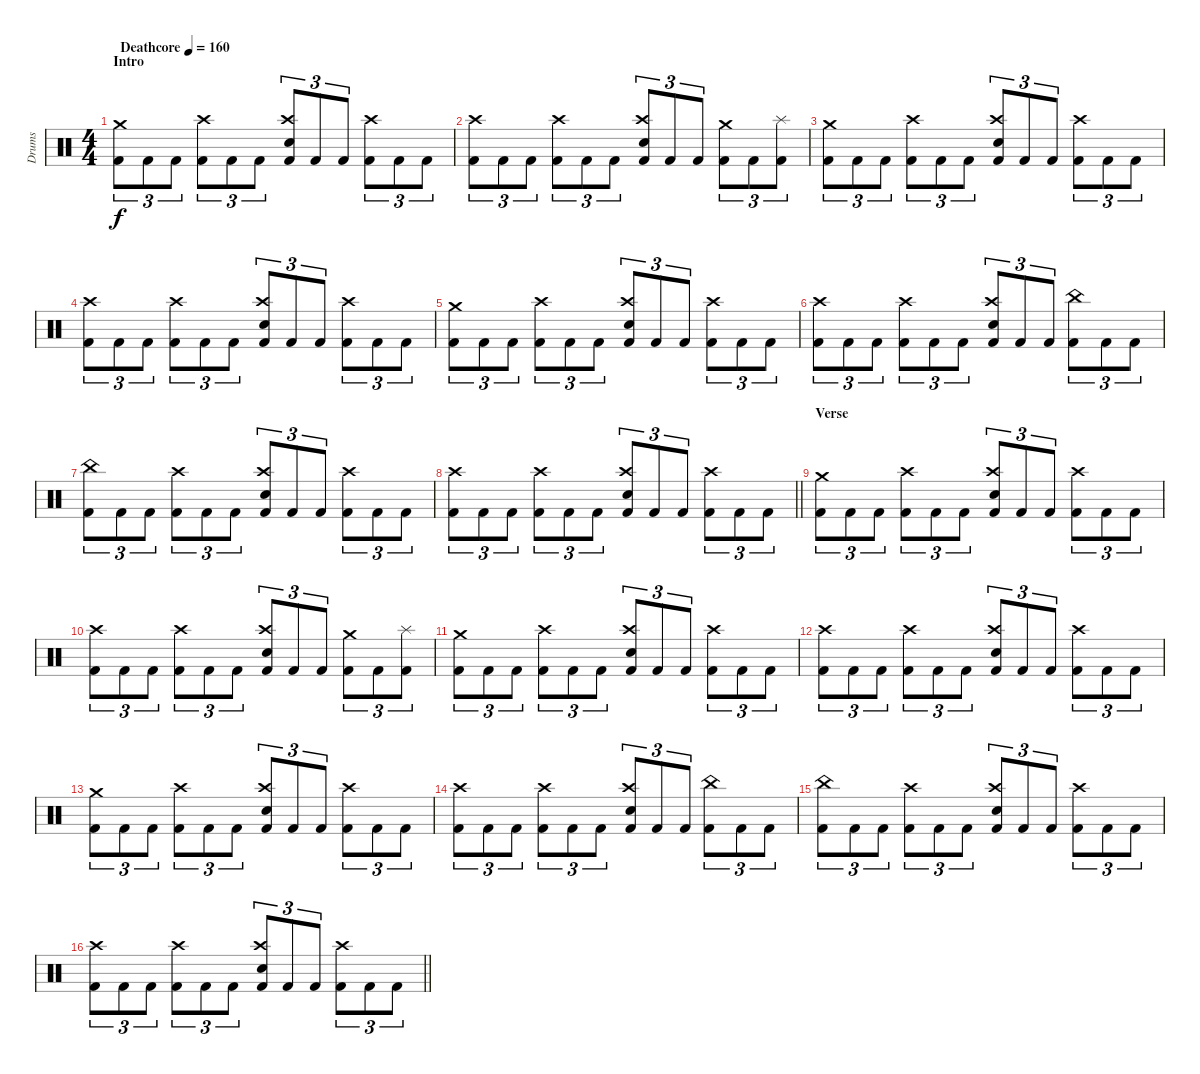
\track ("Drums" "Drums") {instrument percussion}
\staff {score}
\articulation defaults
\ts (4 4)
\section ("" "Intro")
\tempo (160 "Deathcore")
\clef neutral
\ks c
("Crash medium (hit)" "Kick (hit) 2").8{tu (3 2) dy f} "Kick (hit) 2".8{tu (3 2)} "Kick (hit) 2".8{tu (3 2)} ("Crash high (hit)" "Kick (hit) 2").8{tu (3 2)} "Kick (hit) 2".8{tu (3 2)} "Kick (hit) 2".8{tu (3 2)} ("Crash high (hit)" "Electric Snare (hit)" "Kick (hit) 2").8{tu (3 2)} "Kick (hit) 2".8{tu (3 2)} "Kick (hit) 2".8{tu (3 2)} ("Crash high (hit)" "Kick (hit) 2").8{tu (3 2)} "Kick (hit) 2".8{tu (3 2)} "Kick (hit) 2".8{tu (3 2)} |
("Crash high (hit)" "Kick (hit) 2").8{tu (3 2)} "Kick (hit) 2".8{tu (3 2)} "Kick (hit) 2".8{tu (3 2)} ("Crash high (hit)" "Kick (hit) 2").8{tu (3 2)} "Kick (hit) 2".8{tu (3 2)} "Kick (hit) 2".8{tu (3 2)} ("Crash high (hit)" "Electric Snare (hit)" "Kick (hit) 2").8{tu (3 2)} "Kick (hit) 2".8{tu (3 2)} "Kick (hit) 2".8{tu (3 2)} ("Crash medium (hit)" "Kick (hit) 2").8{tu (3 2)} "Kick (hit) 2".8{tu (3 2)} ("Splash (hit)" "Kick (hit) 2").8{tu (3 2)} |
("Crash medium (hit)" "Kick (hit) 2").8{tu (3 2)} "Kick (hit) 2".8{tu (3 2)} "Kick (hit) 2".8{tu (3 2)} ("Crash high (hit)" "Kick (hit) 2").8{tu (3 2)} "Kick (hit) 2".8{tu (3 2)} "Kick (hit) 2".8{tu (3 2)} ("Crash high (hit)" "Electric Snare (hit)" "Kick (hit) 2").8{tu (3 2)} "Kick (hit) 2".8{tu (3 2)} "Kick (hit) 2".8{tu (3 2)} ("Crash high (hit)" "Kick (hit) 2").8{tu (3 2)} "Kick (hit) 2".8{tu (3 2)} "Kick (hit) 2".8{tu (3 2)} |
("Crash high (hit)" "Kick (hit) 2").8{tu (3 2)} "Kick (hit) 2".8{tu (3 2)} "Kick (hit) 2".8{tu (3 2)} ("Crash high (hit)" "Kick (hit) 2").8{tu (3 2)} "Kick (hit) 2".8{tu (3 2)} "Kick (hit) 2".8{tu (3 2)} ("Crash high (hit)" "Electric Snare (hit)" "Kick (hit) 2").8{tu (3 2)} "Kick (hit) 2".8{tu (3 2)} "Kick (hit) 2".8{tu (3 2)} ("Crash high (hit)" "Kick (hit) 2").8{tu (3 2)} "Kick (hit) 2".8{tu (3 2)} "Kick (hit) 2".8{tu (3 2)} |
("Crash medium (hit)" "Kick (hit) 2").8{tu (3 2)} "Kick (hit) 2".8{tu (3 2)} "Kick (hit) 2".8{tu (3 2)} ("Crash high (hit)" "Kick (hit) 2").8{tu (3 2)} "Kick (hit) 2".8{tu (3 2)} "Kick (hit) 2".8{tu (3 2)} ("Crash high (hit)" "Electric Snare (hit)" "Kick (hit) 2").8{tu (3 2)} "Kick (hit) 2".8{tu (3 2)} "Kick (hit) 2".8{tu (3 2)} ("Crash high (hit)" "Kick (hit) 2").8{tu (3 2)} "Kick (hit) 2".8{tu (3 2)} "Kick (hit) 2".8{tu (3 2)} |
("Crash high (hit)" "Kick (hit) 2").8{tu (3 2)} "Kick (hit) 2".8{tu (3 2)} "Kick (hit) 2".8{tu (3 2)} ("Crash high (hit)" "Kick (hit) 2").8{tu (3 2)} "Kick (hit) 2".8{tu (3 2)} "Kick (hit) 2".8{tu (3 2)} ("Crash high (hit)" "Electric Snare (hit)" "Kick (hit) 2").8{tu (3 2)} "Kick (hit) 2".8{tu (3 2)} "Kick (hit) 2".8{tu (3 2)} ("China (hit)" "Kick (hit) 2").8{tu (3 2)} "Kick (hit) 2".8{tu (3 2)} "Kick (hit) 2".8{tu (3 2)} |
("China (hit)" "Kick (hit) 2").8{tu (3 2)} "Kick (hit) 2".8{tu (3 2)} "Kick (hit) 2".8{tu (3 2)} ("Crash high (hit)" "Kick (hit) 2").8{tu (3 2)} "Kick (hit) 2".8{tu (3 2)} "Kick (hit) 2".8{tu (3 2)} ("Crash high (hit)" "Electric Snare (hit)" "Kick (hit) 2").8{tu (3 2)} "Kick (hit) 2".8{tu (3 2)} "Kick (hit) 2".8{tu (3 2)} ("Crash high (hit)" "Kick (hit) 2").8{tu (3 2)} "Kick (hit) 2".8{tu (3 2)} "Kick (hit) 2".8{tu (3 2)} |
\barLineRight lightlight
("Crash high (hit)" "Kick (hit) 2").8{tu (3 2)} "Kick (hit) 2".8{tu (3 2)} "Kick (hit) 2".8{tu (3 2)} ("Crash high (hit)" "Kick (hit) 2").8{tu (3 2)} "Kick (hit) 2".8{tu (3 2)} "Kick (hit) 2".8{tu (3 2)} ("Crash high (hit)" "Electric Snare (hit)" "Kick (hit) 2").8{tu (3 2)} "Kick (hit) 2".8{tu (3 2)} "Kick (hit) 2".8{tu (3 2)} ("Crash high (hit)" "Kick (hit) 2").8{tu (3 2)} "Kick (hit) 2".8{tu (3 2)} "Kick (hit) 2".8{tu (3 2)} |
\section ("" "Verse")
("Crash medium (hit)" "Kick (hit) 2").8{tu (3 2)} "Kick (hit) 2".8{tu (3 2)} "Kick (hit) 2".8{tu (3 2)} ("Crash high (hit)" "Kick (hit) 2").8{tu (3 2)} "Kick (hit) 2".8{tu (3 2)} "Kick (hit) 2".8{tu (3 2)} ("Crash high (hit)" "Electric Snare (hit)" "Kick (hit) 2").8{tu (3 2)} "Kick (hit) 2".8{tu (3 2)} "Kick (hit) 2".8{tu (3 2)} ("Crash high (hit)" "Kick (hit) 2").8{tu (3 2)} "Kick (hit) 2".8{tu (3 2)} "Kick (hit) 2".8{tu (3 2)} |
("Crash high (hit)" "Kick (hit) 2").8{tu (3 2)} "Kick (hit) 2".8{tu (3 2)} "Kick (hit) 2".8{tu (3 2)} ("Crash high (hit)" "Kick (hit) 2").8{tu (3 2)} "Kick (hit) 2".8{tu (3 2)} "Kick (hit) 2".8{tu (3 2)} ("Crash high (hit)" "Electric Snare (hit)" "Kick (hit) 2").8{tu (3 2)} "Kick (hit) 2".8{tu (3 2)} "Kick (hit) 2".8{tu (3 2)} ("Crash medium (hit)" "Kick (hit) 2").8{tu (3 2)} "Kick (hit) 2".8{tu (3 2)} ("Splash (hit)" "Kick (hit) 2").8{tu (3 2)} |
("Crash medium (hit)" "Kick (hit) 2").8{tu (3 2)} "Kick (hit) 2".8{tu (3 2)} "Kick (hit) 2".8{tu (3 2)} ("Crash high (hit)" "Kick (hit) 2").8{tu (3 2)} "Kick (hit) 2".8{tu (3 2)} "Kick (hit) 2".8{tu (3 2)} ("Crash high (hit)" "Electric Snare (hit)" "Kick (hit) 2").8{tu (3 2)} "Kick (hit) 2".8{tu (3 2)} "Kick (hit) 2".8{tu (3 2)} ("Crash high (hit)" "Kick (hit) 2").8{tu (3 2)} "Kick (hit) 2".8{tu (3 2)} "Kick (hit) 2".8{tu (3 2)} |
("Crash high (hit)" "Kick (hit) 2").8{tu (3 2)} "Kick (hit) 2".8{tu (3 2)} "Kick (hit) 2".8{tu (3 2)} ("Crash high (hit)" "Kick (hit) 2").8{tu (3 2)} "Kick (hit) 2".8{tu (3 2)} "Kick (hit) 2".8{tu (3 2)} ("Crash high (hit)" "Electric Snare (hit)" "Kick (hit) 2").8{tu (3 2)} "Kick (hit) 2".8{tu (3 2)} "Kick (hit) 2".8{tu (3 2)} ("Crash high (hit)" "Kick (hit) 2").8{tu (3 2)} "Kick (hit) 2".8{tu (3 2)} "Kick (hit) 2".8{tu (3 2)} |
("Crash medium (hit)" "Kick (hit) 2").8{tu (3 2)} "Kick (hit) 2".8{tu (3 2)} "Kick (hit) 2".8{tu (3 2)} ("Crash high (hit)" "Kick (hit) 2").8{tu (3 2)} "Kick (hit) 2".8{tu (3 2)} "Kick (hit) 2".8{tu (3 2)} ("Crash high (hit)" "Electric Snare (hit)" "Kick (hit) 2").8{tu (3 2)} "Kick (hit) 2".8{tu (3 2)} "Kick (hit) 2".8{tu (3 2)} ("Crash high (hit)" "Kick (hit) 2").8{tu (3 2)} "Kick (hit) 2".8{tu (3 2)} "Kick (hit) 2".8{tu (3 2)} |
("Crash high (hit)" "Kick (hit) 2").8{tu (3 2)} "Kick (hit) 2".8{tu (3 2)} "Kick (hit) 2".8{tu (3 2)} ("Crash high (hit)" "Kick (hit) 2").8{tu (3 2)} "Kick (hit) 2".8{tu (3 2)} "Kick (hit) 2".8{tu (3 2)} ("Crash high (hit)" "Electric Snare (hit)" "Kick (hit) 2").8{tu (3 2)} "Kick (hit) 2".8{tu (3 2)} "Kick (hit) 2".8{tu (3 2)} ("China (hit)" "Kick (hit) 2").8{tu (3 2)} "Kick (hit) 2".8{tu (3 2)} "Kick (hit) 2".8{tu (3 2)} |
("China (hit)" "Kick (hit) 2").8{tu (3 2)} "Kick (hit) 2".8{tu (3 2)} "Kick (hit) 2".8{tu (3 2)} ("Crash high (hit)" "Kick (hit) 2").8{tu (3 2)} "Kick (hit) 2".8{tu (3 2)} "Kick (hit) 2".8{tu (3 2)} ("Crash high (hit)" "Electric Snare (hit)" "Kick (hit) 2").8{tu (3 2)} "Kick (hit) 2".8{tu (3 2)} "Kick (hit) 2".8{tu (3 2)} ("Crash high (hit)" "Kick (hit) 2").8{tu (3 2)} "Kick (hit) 2".8{tu (3 2)} "Kick (hit) 2".8{tu (3 2)} |
\barLineRight lightlight
("Crash high (hit)" "Kick (hit) 2").8{tu (3 2)} "Kick (hit) 2".8{tu (3 2)} "Kick (hit) 2".8{tu (3 2)} ("Crash high (hit)" "Kick (hit) 2").8{tu (3 2)} "Kick (hit) 2".8{tu (3 2)} "Kick (hit) 2".8{tu (3 2)} ("Crash high (hit)" "Electric Snare (hit)" "Kick (hit) 2").8{tu (3 2)} "Kick (hit) 2".8{tu (3 2)} "Kick (hit) 2".8{tu (3 2)} ("Crash high (hit)" "Kick (hit) 2").8{tu (3 2)} "Kick (hit) 2".8{tu (3 2)} "Kick (hit) 2".8{tu (3 2)}
